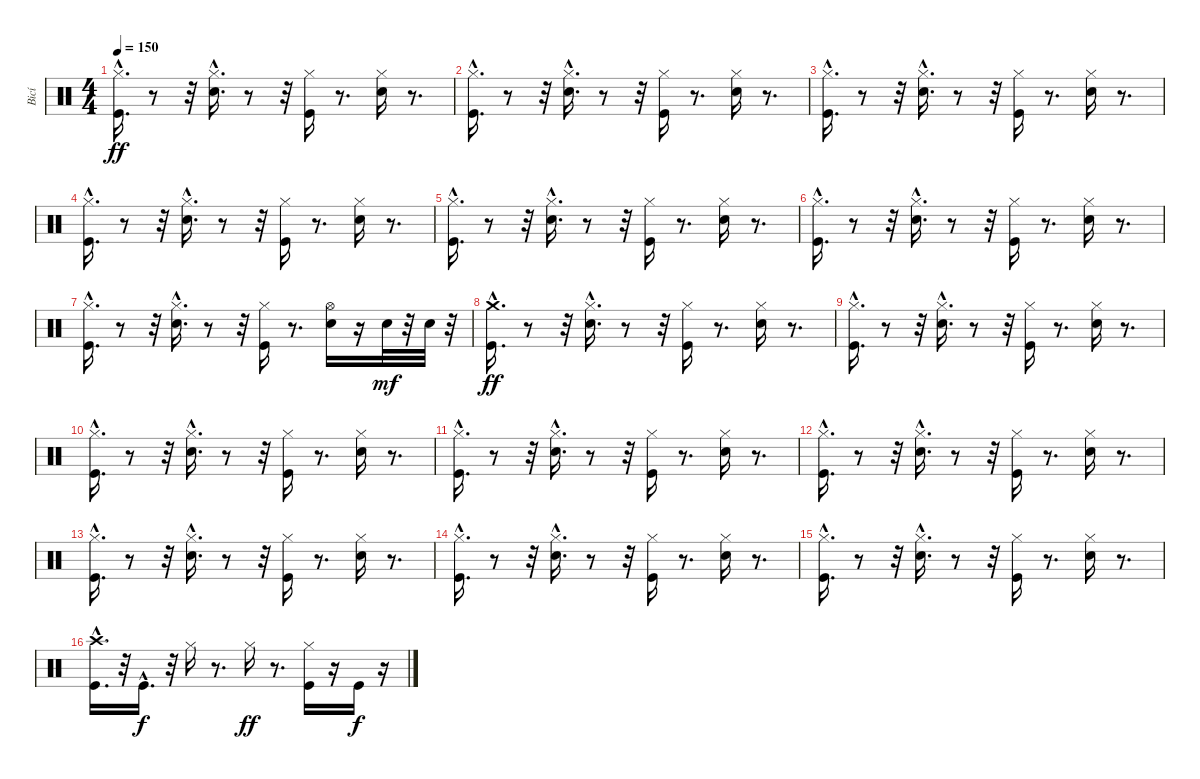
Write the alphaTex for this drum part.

\track ("Bicí" "Bicí") {instrument percussion}
\staff {score}
\articulation defaults
\ts (4 4)
\tempo 150
\clef neutral
\ks c
("Hi-Hat (closed)"{hac} "Kick (hit)").16{d dy ff} r.8 r.32 ("Hi-Hat (closed)"{hac} "Snare (hit) 2").16{d} r.8 r.32 ("Kick (hit)" "Hi-Hat (closed)").16 r.8{d} ("Snare (hit) 2" "Hi-Hat (closed)").16 r.8{d} |
("Hi-Hat (closed)"{hac} "Kick (hit)").16{d} r.8 r.32 ("Hi-Hat (closed)"{hac} "Snare (hit) 2").16{d} r.8 r.32 ("Kick (hit)" "Hi-Hat (closed)").16 r.8{d} ("Snare (hit) 2" "Hi-Hat (closed)").16 r.8{d} |
("Hi-Hat (closed)"{hac} "Kick (hit)").16{d} r.8 r.32 ("Hi-Hat (closed)"{hac} "Snare (hit) 2").16{d} r.8 r.32 ("Kick (hit)" "Hi-Hat (closed)").16 r.8{d} ("Snare (hit) 2" "Hi-Hat (closed)").16 r.8{d} |
("Hi-Hat (closed)"{hac} "Kick (hit)").16{d} r.8 r.32 ("Hi-Hat (closed)"{hac} "Snare (hit) 2").16{d} r.8 r.32 ("Kick (hit)" "Hi-Hat (closed)").16 r.8{d} ("Snare (hit) 2" "Hi-Hat (closed)").16 r.8{d} |
("Hi-Hat (closed)"{hac} "Kick (hit)").16{d} r.8 r.32 ("Hi-Hat (closed)"{hac} "Snare (hit) 2").16{d} r.8 r.32 ("Kick (hit)" "Hi-Hat (closed)").16 r.8{d} ("Snare (hit) 2" "Hi-Hat (closed)").16 r.8{d} |
("Hi-Hat (closed)"{hac} "Kick (hit)").16{d} r.8 r.32 ("Hi-Hat (closed)"{hac} "Snare (hit) 2").16{d} r.8 r.32 ("Kick (hit)" "Hi-Hat (closed)").16 r.8{d} ("Snare (hit) 2" "Hi-Hat (closed)").16 r.8{d} |
("Hi-Hat (closed)"{hac} "Kick (hit)").16{d} r.8 r.32 ("Hi-Hat (closed)"{hac} "Snare (hit) 2").16{d} r.8 r.32 ("Kick (hit)" "Hi-Hat (closed)").16 r.8{d} ("Snare (hit) 2" "Hi-Hat (open)").16 r.16 "Snare (hit) 2".32{dy mf} r.32 "Snare (hit) 2".32 r.32 |
("Crash medium (hit)"{hac} "Kick (hit)").16{d dy ff} r.8 r.32 ("Hi-Hat (closed)"{hac} "Snare (hit) 2").16{d} r.8 r.32 ("Kick (hit)" "Hi-Hat (closed)").16 r.8{d} ("Snare (hit) 2" "Hi-Hat (closed)").16 r.8{d} |
("Hi-Hat (closed)"{hac} "Kick (hit)").16{d} r.8 r.32 ("Hi-Hat (closed)"{hac} "Snare (hit) 2").16{d} r.8 r.32 ("Kick (hit)" "Hi-Hat (closed)").16 r.8{d} ("Snare (hit) 2" "Hi-Hat (closed)").16 r.8{d} |
("Hi-Hat (closed)"{hac} "Kick (hit)").16{d} r.8 r.32 ("Hi-Hat (closed)"{hac} "Snare (hit) 2").16{d} r.8 r.32 ("Kick (hit)" "Hi-Hat (closed)").16 r.8{d} ("Snare (hit) 2" "Hi-Hat (closed)").16 r.8{d} |
("Hi-Hat (closed)"{hac} "Kick (hit)").16{d} r.8 r.32 ("Hi-Hat (closed)"{hac} "Snare (hit) 2").16{d} r.8 r.32 ("Kick (hit)" "Hi-Hat (closed)").16 r.8{d} ("Snare (hit) 2" "Hi-Hat (closed)").16 r.8{d} |
("Hi-Hat (closed)"{hac} "Kick (hit)").16{d} r.8 r.32 ("Hi-Hat (closed)"{hac} "Snare (hit) 2").16{d} r.8 r.32 ("Kick (hit)" "Hi-Hat (closed)").16 r.8{d} ("Snare (hit) 2" "Hi-Hat (closed)").16 r.8{d} |
("Hi-Hat (closed)"{hac} "Kick (hit)").16{d} r.8 r.32 ("Hi-Hat (closed)"{hac} "Snare (hit) 2").16{d} r.8 r.32 ("Kick (hit)" "Hi-Hat (closed)").16 r.8{d} ("Snare (hit) 2" "Hi-Hat (closed)").16 r.8{d} |
("Hi-Hat (closed)"{hac} "Kick (hit)").16{d} r.8 r.32 ("Hi-Hat (closed)"{hac} "Snare (hit) 2").16{d} r.8 r.32 ("Kick (hit)" "Hi-Hat (closed)").16 r.8{d} ("Snare (hit) 2" "Hi-Hat (closed)").16 r.8{d} |
("Hi-Hat (closed)"{hac} "Kick (hit)").16{d} r.8 r.32 ("Hi-Hat (closed)"{hac} "Snare (hit) 2").16{d} r.8 r.32 ("Kick (hit)" "Hi-Hat (closed)").16 r.8{d} ("Snare (hit) 2" "Hi-Hat (closed)").16 r.8{d} |
("Crash high (hit)"{hac} "Kick (hit)").16{d} r.32 "Kick (hit)"{hac}.16{d dy f} r.32 "Hi-Hat (closed)".16 r.8{d} "Hi-Hat (closed)".16{dy ff} r.8{d} ("Hi-Hat (closed)" "Kick (hit)").16 r.16 "Kick (hit)".16{dy f} r.16
